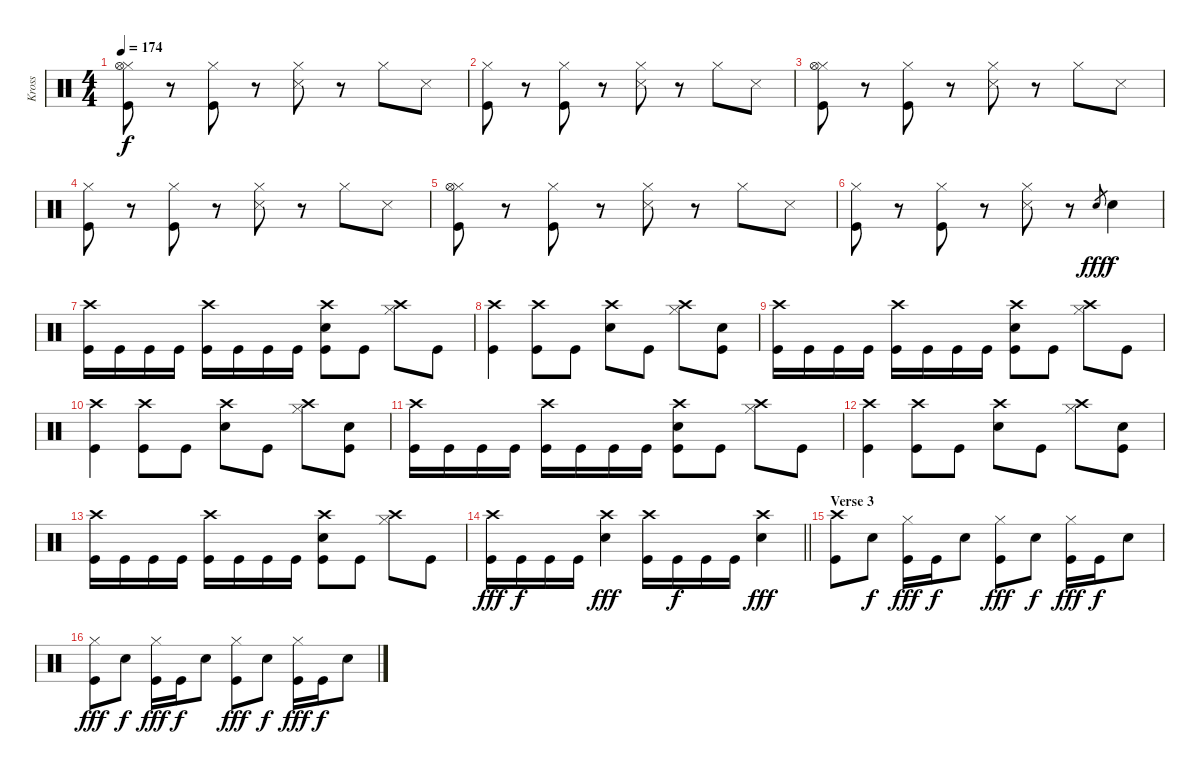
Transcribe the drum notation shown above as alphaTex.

\track ("Kross" "Kross") {instrument percussion}
\staff {score}
\articulation defaults
\ts (4 4)
\tempo 174
\clef neutral
\ks c
("Hi-Hat (closed)" "Hi-Hat (open)" "Kick (hit)").8{dy f} r.8 ("Hi-Hat (closed)" "Kick (hit)").8 r.8 ("Hi-Hat (closed)" "Snare (side stick) 3").8 r.8 "Hi-Hat (closed)".8 "Snare (side stick) 3".8 |
("Hi-Hat (closed)" "Kick (hit)").8 r.8 ("Hi-Hat (closed)" "Kick (hit)").8 r.8 ("Hi-Hat (closed)" "Snare (side stick) 3").8 r.8 "Hi-Hat (closed)".8 "Snare (side stick) 3".8 |
("Hi-Hat (closed)" "Hi-Hat (open)" "Kick (hit)").8 r.8 ("Hi-Hat (closed)" "Kick (hit)").8 r.8 ("Hi-Hat (closed)" "Snare (side stick) 3").8 r.8 "Hi-Hat (closed)".8 "Snare (side stick) 3".8 |
("Hi-Hat (closed)" "Kick (hit)").8 r.8 ("Hi-Hat (closed)" "Kick (hit)").8 r.8 ("Hi-Hat (closed)" "Snare (side stick) 3").8 r.8 "Hi-Hat (closed)".8 "Snare (side stick) 3".8 |
("Hi-Hat (closed)" "Hi-Hat (open)" "Kick (hit)").8 r.8 ("Hi-Hat (closed)" "Kick (hit)").8 r.8 ("Hi-Hat (closed)" "Snare (side stick) 3").8 r.8 "Hi-Hat (closed)".8 "Snare (side stick) 3".8 |
("Hi-Hat (closed)" "Kick (hit)").8 r.8 ("Hi-Hat (closed)" "Kick (hit)").8 r.8 ("Hi-Hat (closed)" "Snare (side stick) 3").8 r.8 "Snare (hit) 2".8{gr dy fff} "Snare (hit) 2".4{dy f} |
("Crash high (hit)" "Kick (hit)").16 "Kick (hit)".16 "Kick (hit)".16 "Kick (hit)".16 ("Crash high (hit)" "Kick (hit)").16 "Kick (hit)".16 "Kick (hit)".16 "Kick (hit)".16 ("Crash high (hit)" "Snare (hit) 2" "Kick (hit)").8 "Kick (hit)".8 ("Crash high (hit)" "Hi-Hat (closed)").8 "Kick (hit)".8 |
("Crash high (hit)" "Kick (hit)").4 ("Crash high (hit)" "Kick (hit)").8 "Kick (hit)".8 ("Crash high (hit)" "Snare (hit) 2").8 "Kick (hit)".8 ("Crash high (hit)" "Hi-Hat (closed)").8 ("Snare (hit) 2" "Kick (hit)").8 |
("Crash high (hit)" "Kick (hit)").16 "Kick (hit)".16 "Kick (hit)".16 "Kick (hit)".16 ("Crash high (hit)" "Kick (hit)").16 "Kick (hit)".16 "Kick (hit)".16 "Kick (hit)".16 ("Crash high (hit)" "Snare (hit) 2" "Kick (hit)").8 "Kick (hit)".8 ("Crash high (hit)" "Hi-Hat (closed)").8 "Kick (hit)".8 |
("Crash high (hit)" "Kick (hit)").4 ("Crash high (hit)" "Kick (hit)").8 "Kick (hit)".8 ("Crash high (hit)" "Snare (hit) 2").8 "Kick (hit)".8 ("Crash high (hit)" "Hi-Hat (closed)").8 ("Snare (hit) 2" "Kick (hit)").8 |
("Crash high (hit)" "Kick (hit)").16 "Kick (hit)".16 "Kick (hit)".16 "Kick (hit)".16 ("Crash high (hit)" "Kick (hit)").16 "Kick (hit)".16 "Kick (hit)".16 "Kick (hit)".16 ("Crash high (hit)" "Snare (hit) 2" "Kick (hit)").8 "Kick (hit)".8 ("Crash high (hit)" "Hi-Hat (closed)").8 "Kick (hit)".8 |
("Crash high (hit)" "Kick (hit)").4 ("Crash high (hit)" "Kick (hit)").8 "Kick (hit)".8 ("Crash high (hit)" "Snare (hit) 2").8 "Kick (hit)".8 ("Crash high (hit)" "Hi-Hat (closed)").8 ("Snare (hit) 2" "Kick (hit)").8 |
("Crash high (hit)" "Kick (hit)").16 "Kick (hit)".16 "Kick (hit)".16 "Kick (hit)".16 ("Crash high (hit)" "Kick (hit)").16 "Kick (hit)".16 "Kick (hit)".16 "Kick (hit)".16 ("Crash high (hit)" "Snare (hit) 2" "Kick (hit)").8 "Kick (hit)".8 ("Crash high (hit)" "Hi-Hat (closed)").8 "Kick (hit)".8 |
\barLineRight lightlight
("Crash high (hit)" "Kick (hit)").16{dy fff} "Kick (hit)".16{dy f} "Kick (hit)".16 "Kick (hit)".16 ("Crash high (hit)" "Snare (hit) 2").4{dy fff} ("Crash high (hit)" "Kick (hit)").16 "Kick (hit)".16{dy f} "Kick (hit)".16 "Kick (hit)".16 ("Crash high (hit)" "Snare (hit) 2").4{dy fff} |
\section ("" "Verse 3")
("Crash high (hit)" "Kick (hit)").8 "Snare (hit) 2".8{dy f} ("Hi-Hat (closed)" "Kick (hit)").16{dy fff} "Kick (hit)".16{dy f} "Snare (hit) 2".8 ("Hi-Hat (closed)" "Kick (hit)").8{dy fff} "Snare (hit) 2".8{dy f} ("Hi-Hat (closed)" "Kick (hit)").16{dy fff} "Kick (hit)".16{dy f} "Snare (hit) 2".8 |
("Hi-Hat (closed)" "Kick (hit)").8{dy fff} "Snare (hit) 2".8{dy f} ("Hi-Hat (closed)" "Kick (hit)").16{dy fff} "Kick (hit)".16{dy f} "Snare (hit) 2".8 ("Hi-Hat (closed)" "Kick (hit)").8{dy fff} "Snare (hit) 2".8{dy f} ("Hi-Hat (closed)" "Kick (hit)").16{dy fff} "Kick (hit)".16{dy f} "Snare (hit) 2".8
